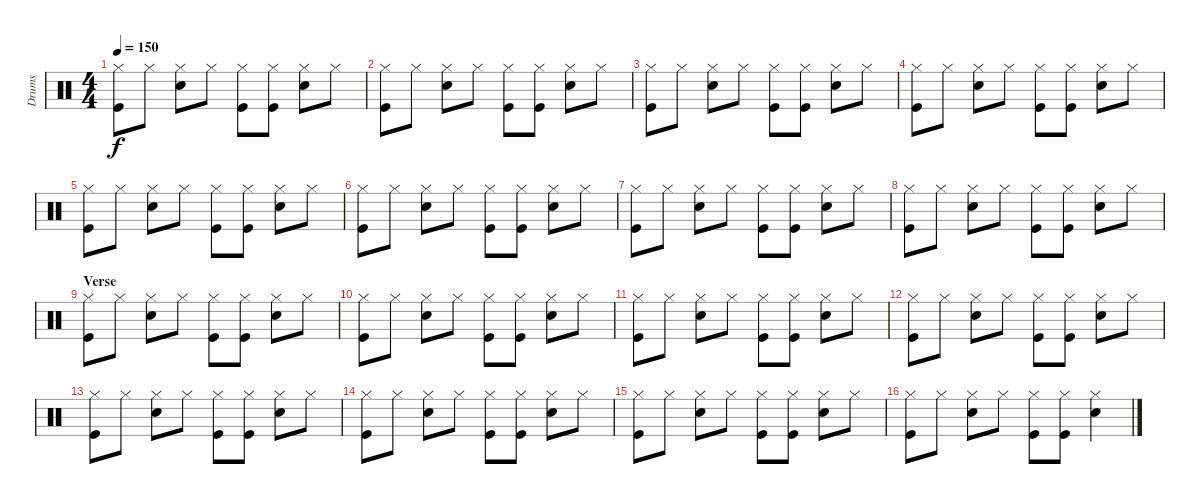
\track ("Drums" "Drums") {instrument percussion}
\staff {score}
\articulation defaults
\ts (4 4)
\section ("" "")
\tempo 150
\clef neutral
\ks c
("Hi-Hat (closed)" "Kick (hit)").8{dy f} "Hi-Hat (closed)".8 ("Hi-Hat (closed)" "Snare (hit) 2").8 "Hi-Hat (closed)".8 ("Hi-Hat (closed)" "Kick (hit)").8 ("Hi-Hat (closed)" "Kick (hit)").8 ("Hi-Hat (closed)" "Snare (hit) 2").8 "Hi-Hat (closed)".8 |
("Hi-Hat (closed)" "Kick (hit)").8 "Hi-Hat (closed)".8 ("Hi-Hat (closed)" "Snare (hit) 2").8 "Hi-Hat (closed)".8 ("Hi-Hat (closed)" "Kick (hit)").8 ("Hi-Hat (closed)" "Kick (hit)").8 ("Hi-Hat (closed)" "Snare (hit) 2").8 "Hi-Hat (closed)".8 |
("Hi-Hat (closed)" "Kick (hit)").8 "Hi-Hat (closed)".8 ("Hi-Hat (closed)" "Snare (hit) 2").8 "Hi-Hat (closed)".8 ("Hi-Hat (closed)" "Kick (hit)").8 ("Hi-Hat (closed)" "Kick (hit)").8 ("Hi-Hat (closed)" "Snare (hit) 2").8 "Hi-Hat (closed)".8 |
("Hi-Hat (closed)" "Kick (hit)").8 "Hi-Hat (closed)".8 ("Hi-Hat (closed)" "Snare (hit) 2").8 "Hi-Hat (closed)".8 ("Hi-Hat (closed)" "Kick (hit)").8 ("Hi-Hat (closed)" "Kick (hit)").8 ("Hi-Hat (closed)" "Snare (hit) 2").8 "Hi-Hat (closed)".8 |
("Hi-Hat (closed)" "Kick (hit)").8 "Hi-Hat (closed)".8 ("Hi-Hat (closed)" "Snare (hit) 2").8 "Hi-Hat (closed)".8 ("Hi-Hat (closed)" "Kick (hit)").8 ("Hi-Hat (closed)" "Kick (hit)").8 ("Hi-Hat (closed)" "Snare (hit) 2").8 "Hi-Hat (closed)".8 |
("Hi-Hat (closed)" "Kick (hit)").8 "Hi-Hat (closed)".8 ("Hi-Hat (closed)" "Snare (hit) 2").8 "Hi-Hat (closed)".8 ("Hi-Hat (closed)" "Kick (hit)").8 ("Hi-Hat (closed)" "Kick (hit)").8 ("Hi-Hat (closed)" "Snare (hit) 2").8 "Hi-Hat (closed)".8 |
("Hi-Hat (closed)" "Kick (hit)").8 "Hi-Hat (closed)".8 ("Hi-Hat (closed)" "Snare (hit) 2").8 "Hi-Hat (closed)".8 ("Hi-Hat (closed)" "Kick (hit)").8 ("Hi-Hat (closed)" "Kick (hit)").8 ("Hi-Hat (closed)" "Snare (hit) 2").8 "Hi-Hat (closed)".8 |
("Hi-Hat (closed)" "Kick (hit)").8 "Hi-Hat (closed)".8 ("Hi-Hat (closed)" "Snare (hit) 2").8 "Hi-Hat (closed)".8 ("Hi-Hat (closed)" "Kick (hit)").8 ("Hi-Hat (closed)" "Kick (hit)").8 ("Hi-Hat (closed)" "Snare (hit) 2").8 "Hi-Hat (closed)".8 |
\section ("" "Verse")
("Hi-Hat (closed)" "Kick (hit)").8 "Hi-Hat (closed)".8 ("Hi-Hat (closed)" "Snare (hit) 2").8 "Hi-Hat (closed)".8 ("Hi-Hat (closed)" "Kick (hit)").8 ("Hi-Hat (closed)" "Kick (hit)").8 ("Hi-Hat (closed)" "Snare (hit) 2").8 "Hi-Hat (closed)".8 |
("Hi-Hat (closed)" "Kick (hit)").8 "Hi-Hat (closed)".8 ("Hi-Hat (closed)" "Snare (hit) 2").8 "Hi-Hat (closed)".8 ("Hi-Hat (closed)" "Kick (hit)").8 ("Hi-Hat (closed)" "Kick (hit)").8 ("Hi-Hat (closed)" "Snare (hit) 2").8 "Hi-Hat (closed)".8 |
("Hi-Hat (closed)" "Kick (hit)").8 "Hi-Hat (closed)".8 ("Hi-Hat (closed)" "Snare (hit) 2").8 "Hi-Hat (closed)".8 ("Hi-Hat (closed)" "Kick (hit)").8 ("Hi-Hat (closed)" "Kick (hit)").8 ("Hi-Hat (closed)" "Snare (hit) 2").8 "Hi-Hat (closed)".8 |
("Hi-Hat (closed)" "Kick (hit)").8 "Hi-Hat (closed)".8 ("Hi-Hat (closed)" "Snare (hit) 2").8 "Hi-Hat (closed)".8 ("Hi-Hat (closed)" "Kick (hit)").8 ("Hi-Hat (closed)" "Kick (hit)").8 ("Hi-Hat (closed)" "Snare (hit) 2").8 "Hi-Hat (closed)".8 |
("Hi-Hat (closed)" "Kick (hit)").8 "Hi-Hat (closed)".8 ("Hi-Hat (closed)" "Snare (hit) 2").8 "Hi-Hat (closed)".8 ("Hi-Hat (closed)" "Kick (hit)").8 ("Hi-Hat (closed)" "Kick (hit)").8 ("Hi-Hat (closed)" "Snare (hit) 2").8 "Hi-Hat (closed)".8 |
("Hi-Hat (closed)" "Kick (hit)").8 "Hi-Hat (closed)".8 ("Hi-Hat (closed)" "Snare (hit) 2").8 "Hi-Hat (closed)".8 ("Hi-Hat (closed)" "Kick (hit)").8 ("Hi-Hat (closed)" "Kick (hit)").8 ("Hi-Hat (closed)" "Snare (hit) 2").8 "Hi-Hat (closed)".8 |
("Hi-Hat (closed)" "Kick (hit)").8 "Hi-Hat (closed)".8 ("Hi-Hat (closed)" "Snare (hit) 2").8 "Hi-Hat (closed)".8 ("Hi-Hat (closed)" "Kick (hit)").8 ("Hi-Hat (closed)" "Kick (hit)").8 ("Hi-Hat (closed)" "Snare (hit) 2").8 "Hi-Hat (closed)".8 |
("Hi-Hat (closed)" "Kick (hit)").8 "Hi-Hat (closed)".8 ("Hi-Hat (closed)" "Snare (hit) 2").8 "Hi-Hat (closed)".8 ("Hi-Hat (closed)" "Kick (hit)").8 ("Hi-Hat (closed)" "Kick (hit)").8 ("Hi-Hat (closed)" "Snare (hit) 2").4
